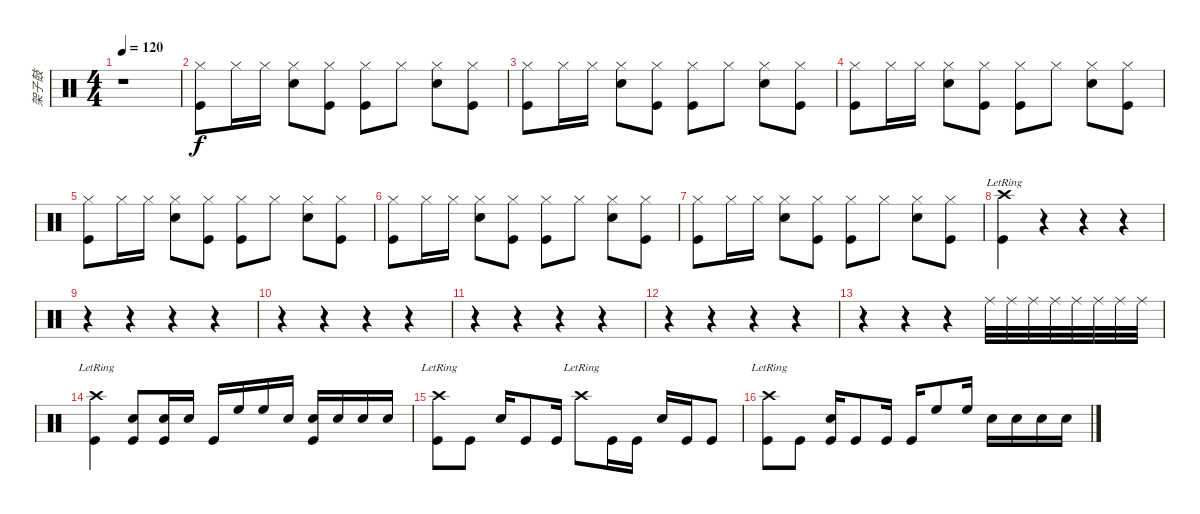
\track ("架子鼓" "架子鼓") {instrument percussion}
\staff {score}
\articulation defaults
\ts (4 4)
\tempo 120
\clef neutral
\ks c
r.1{dy f} |
("Hi-Hat (closed)" "Kick (hit)").8 "Hi-Hat (closed)".16 "Hi-Hat (closed)".16 ("Hi-Hat (closed)" "Snare (hit) 2").8 ("Hi-Hat (closed)" "Kick (hit)").8 ("Hi-Hat (closed)" "Kick (hit)").8 "Hi-Hat (closed)".8 ("Hi-Hat (closed)" "Snare (hit) 2").8 ("Hi-Hat (closed)" "Kick (hit)").8 |
("Hi-Hat (closed)" "Kick (hit)").8 "Hi-Hat (closed)".16 "Hi-Hat (closed)".16 ("Hi-Hat (closed)" "Snare (hit) 2").8 ("Hi-Hat (closed)" "Kick (hit)").8 ("Hi-Hat (closed)" "Kick (hit)").8 "Hi-Hat (closed)".8 ("Hi-Hat (closed)" "Snare (hit) 2").8 ("Hi-Hat (closed)" "Kick (hit)").8 |
("Hi-Hat (closed)" "Kick (hit)").8 "Hi-Hat (closed)".16 "Hi-Hat (closed)".16 ("Hi-Hat (closed)" "Snare (hit) 2").8 ("Hi-Hat (closed)" "Kick (hit)").8 ("Hi-Hat (closed)" "Kick (hit)").8 "Hi-Hat (closed)".8 ("Hi-Hat (closed)" "Snare (hit) 2").8 ("Hi-Hat (closed)" "Kick (hit)").8 |
("Hi-Hat (closed)" "Kick (hit)").8 "Hi-Hat (closed)".16 "Hi-Hat (closed)".16 ("Hi-Hat (closed)" "Snare (hit) 2").8 ("Hi-Hat (closed)" "Kick (hit)").8 ("Hi-Hat (closed)" "Kick (hit)").8 "Hi-Hat (closed)".8 ("Hi-Hat (closed)" "Snare (hit) 2").8 ("Hi-Hat (closed)" "Kick (hit)").8 |
("Hi-Hat (closed)" "Kick (hit)").8 "Hi-Hat (closed)".16 "Hi-Hat (closed)".16 ("Hi-Hat (closed)" "Snare (hit) 2").8 ("Hi-Hat (closed)" "Kick (hit)").8 ("Hi-Hat (closed)" "Kick (hit)").8 "Hi-Hat (closed)".8 ("Hi-Hat (closed)" "Snare (hit) 2").8 ("Hi-Hat (closed)" "Kick (hit)").8 |
("Hi-Hat (closed)" "Kick (hit)").8 "Hi-Hat (closed)".16 "Hi-Hat (closed)".16 ("Hi-Hat (closed)" "Snare (hit) 2").8 ("Hi-Hat (closed)" "Kick (hit)").8 ("Hi-Hat (closed)" "Kick (hit)").8 "Hi-Hat (closed)".8 ("Hi-Hat (closed)" "Snare (hit) 2").8 ("Hi-Hat (closed)" "Kick (hit)").8 |
("Crash high (hit)"{lr} "Kick (hit)").4 r.4 r.4 r.4 |
r.4 r.4 r.4 r.4 |
r.4 r.4 r.4 r.4 |
r.4 r.4 r.4 r.4 |
r.4 r.4 r.4 r.4 |
r.4 r.4 r.4 "Ride (middle)".32 "Ride (middle)".32 "Ride (middle)".32 "Ride (middle)".32 "Ride (middle)".32 "Ride (middle)".32 "Ride (middle)".32 "Ride (middle)".32 |
("Crash high (hit)"{lr} "Kick (hit)").4 ("Snare (hit) 2" "Kick (hit)").8 ("Snare (hit) 2" "Kick (hit)").16 "Snare (hit) 2".16 "Kick (hit)".16 "High Floor Tom (hit)".16 "High Floor Tom (hit)".16 "Snare (hit) 2".16 ("Snare (hit) 2" "Kick (hit)").16 "Snare (hit) 2".16 "Snare (hit) 2".16 "Snare (hit) 2".16 |
("Crash high (hit)"{lr} "Kick (hit)").8 "Kick (hit)".8 "Snare (hit) 2".16 "Kick (hit)".8 "Kick (hit)".16 "Crash high (hit)"{lr}.8 "Kick (hit)".16 "Kick (hit)".16 "Snare (hit) 2".16 "Kick (hit)".16 "Kick (hit)".8 |
("Crash high (hit)"{lr} "Kick (hit)").8 "Kick (hit)".8 ("Snare (hit) 2" "Kick (hit)").16 "Kick (hit)".8 "Kick (hit)".16 "Kick (hit)".16 "High Floor Tom (hit)".8 "High Floor Tom (hit)".16 "Snare (hit) 2".16 "Snare (hit) 2".16 "Snare (hit) 2".16 "Snare (hit) 2".16
